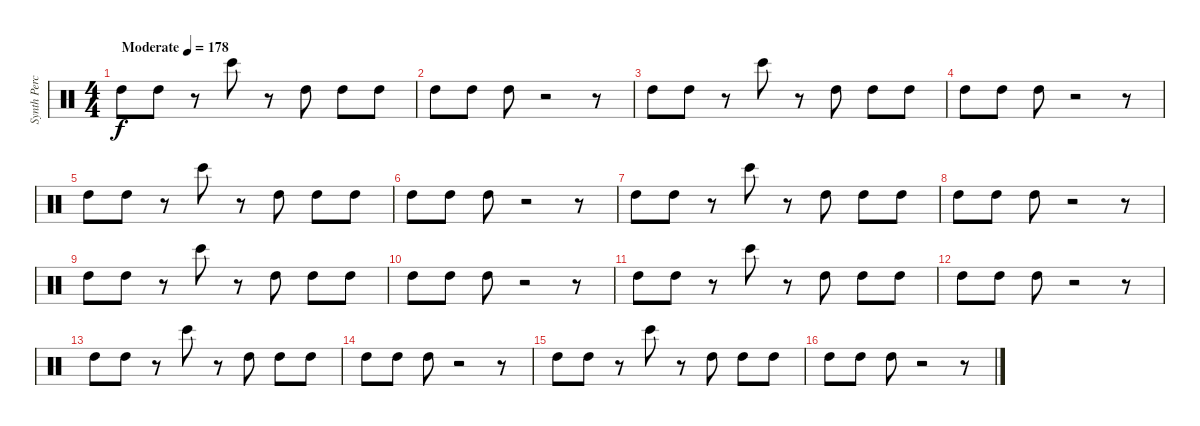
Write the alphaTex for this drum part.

\track ("Synth Perc" "Synth Perc") {instrument percussion}
\staff {score}
\articulation defaults
\ts (4 4)
\tempo (178 "Moderate")
\clef neutral
\ks c "High Tom (hit)".8{dy f} "High Tom (hit)".8
r.8 "Bongo High (hit)".8 r.8 "High Tom (hit)".8 "High Tom (hit)".8 "High Tom (hit)".8 |
"High Tom (hit)".8 "High Tom (hit)".8 "High Tom (hit)".8 r.2 r.8 |
"High Tom (hit)".8 "High Tom (hit)".8 r.8 "Bongo High (hit)".8 r.8 "High Tom (hit)".8 "High Tom (hit)".8 "High Tom (hit)".8 |
"High Tom (hit)".8 "High Tom (hit)".8 "High Tom (hit)".8 r.2 r.8 |
"High Tom (hit)".8 "High Tom (hit)".8 r.8 "Bongo High (hit)".8 r.8 "High Tom (hit)".8 "High Tom (hit)".8 "High Tom (hit)".8 |
"High Tom (hit)".8 "High Tom (hit)".8 "High Tom (hit)".8 r.2 r.8 |
"High Tom (hit)".8 "High Tom (hit)".8 r.8 "Bongo High (hit)".8 r.8 "High Tom (hit)".8 "High Tom (hit)".8 "High Tom (hit)".8 |
"High Tom (hit)".8 "High Tom (hit)".8 "High Tom (hit)".8 r.2 r.8 |
"High Tom (hit)".8 "High Tom (hit)".8 r.8 "Bongo High (hit)".8 r.8 "High Tom (hit)".8 "High Tom (hit)".8 "High Tom (hit)".8 |
"High Tom (hit)".8 "High Tom (hit)".8 "High Tom (hit)".8 r.2 r.8 |
"High Tom (hit)".8 "High Tom (hit)".8 r.8 "Bongo High (hit)".8 r.8 "High Tom (hit)".8 "High Tom (hit)".8 "High Tom (hit)".8 |
"High Tom (hit)".8 "High Tom (hit)".8 "High Tom (hit)".8 r.2 r.8 |
"High Tom (hit)".8 "High Tom (hit)".8 r.8 "Bongo High (hit)".8 r.8 "High Tom (hit)".8 "High Tom (hit)".8 "High Tom (hit)".8 |
"High Tom (hit)".8 "High Tom (hit)".8 "High Tom (hit)".8 r.2 r.8 |
"High Tom (hit)".8 "High Tom (hit)".8 r.8 "Bongo High (hit)".8 r.8 "High Tom (hit)".8 "High Tom (hit)".8 "High Tom (hit)".8 |
"High Tom (hit)".8 "High Tom (hit)".8 "High Tom (hit)".8 r.2 r.8
